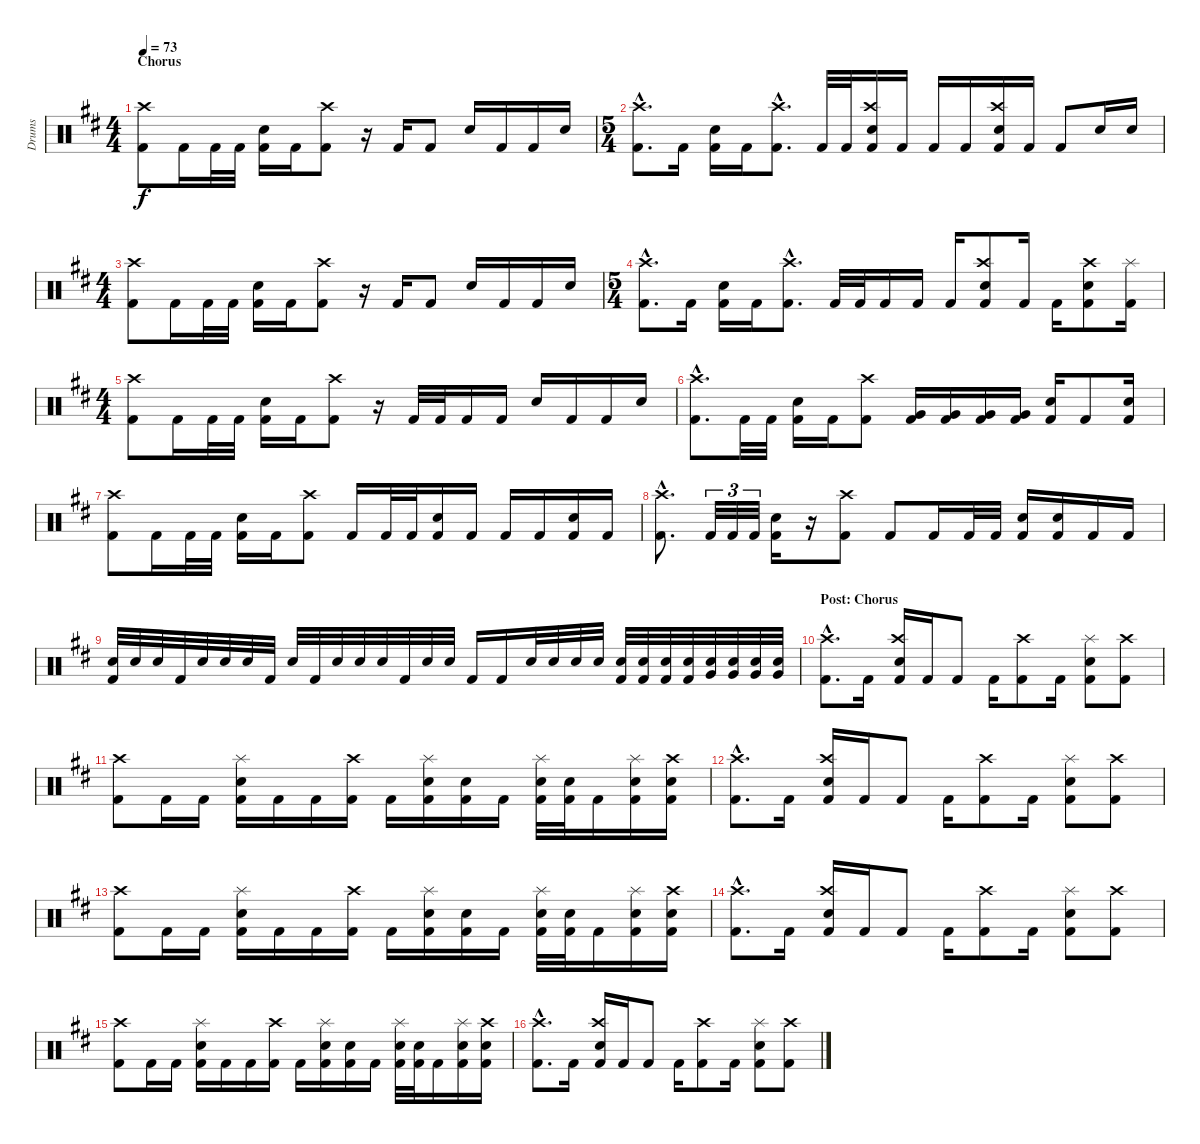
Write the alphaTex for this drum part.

\track ("Drums" "Drums") {instrument percussion}
\staff {score}
\articulation defaults
\ts (4 4)
\section ("" "Chorus")
\tempo 73
\clef neutral
\ks d
("Kick (hit) 2" "Crash high (hit)").8{dy f} "Kick (hit) 2".16 "Kick (hit) 2".32 "Kick (hit) 2".32 ("Kick (hit) 2" "Electric Snare (hit)").16 "Kick (hit) 2".16 ("Kick (hit) 2" "Crash high (hit)").8 r.16 "Kick (hit) 2".16 "Kick (hit) 2".8 "Electric Snare (hit)".16 "Kick (hit) 2".16 "Kick (hit) 2".16 "Electric Snare (hit)".16 |
\ts (5 4)
("Kick (hit) 2"{hac} "Crash high (hit)"{hac}).8{d} "Kick (hit) 2".16 ("Kick (hit) 2" "Electric Snare (hit)").16 "Kick (hit) 2".16 ("Kick (hit) 2"{hac} "Crash high (hit)"{hac}).8{d} "Kick (hit) 2".32 "Kick (hit) 2".32 ("Kick (hit) 2" "Electric Snare (hit)" "Crash high (hit)").16 "Kick (hit) 2".16 "Kick (hit) 2".16 "Kick (hit) 2".16 ("Kick (hit) 2" "Crash high (hit)" "Electric Snare (hit)").16 "Kick (hit) 2".16 "Kick (hit) 2".8 "Electric Snare (hit)".16 "Electric Snare (hit)".16 |
\ts (4 4)
("Kick (hit) 2" "Crash high (hit)").8 "Kick (hit) 2".16 "Kick (hit) 2".32 "Kick (hit) 2".32 ("Kick (hit) 2" "Electric Snare (hit)").16 "Kick (hit) 2".16 ("Kick (hit) 2" "Crash high (hit)").8 r.16 "Kick (hit) 2".16 "Kick (hit) 2".8 "Electric Snare (hit)".16 "Kick (hit) 2".16 "Kick (hit) 2".16 "Electric Snare (hit)".16 |
\ts (5 4)
("Kick (hit) 2"{hac} "Crash high (hit)"{hac}).8{d} "Kick (hit) 2".16 ("Kick (hit) 2" "Electric Snare (hit)").16 "Kick (hit) 2".16 ("Kick (hit) 2"{hac} "Crash high (hit)"{hac}).8{d} "Kick (hit) 2".32 "Kick (hit) 2".32 "Kick (hit) 2".16 "Kick (hit) 2".16 "Kick (hit) 2".16 ("Kick (hit) 2" "Electric Snare (hit)" "Crash high (hit)").8 "Kick (hit) 2".16 "Kick (hit) 2".16 ("Kick (hit) 2" "Electric Snare (hit)" "Crash high (hit)").8 ("Kick (hit) 2" "Splash (hit)").16 |
\ts (4 4)
("Kick (hit) 2" "Crash high (hit)").8 "Kick (hit) 2".16 "Kick (hit) 2".32 "Kick (hit) 2".32 ("Kick (hit) 2" "Electric Snare (hit)").16 "Kick (hit) 2".16 ("Kick (hit) 2" "Crash high (hit)").8 r.16 "Kick (hit) 2".32 "Kick (hit) 2".32 "Kick (hit) 2".16 "Kick (hit) 2".16 "Electric Snare (hit)".16 "Kick (hit) 2".16 "Kick (hit) 2".16 "Electric Snare (hit)".16 |
("Kick (hit) 2" "Crash high (hit)"{hac}).8{d} "Kick (hit) 2".32 "Kick (hit) 2".32 ("Kick (hit) 2" "Electric Snare (hit)").16 "Kick (hit) 2".16 ("Kick (hit) 2" "Crash high (hit)").8 ("Kick (hit) 2" "Very Low Tom (hit)").16 ("Kick (hit) 2" "Very Low Tom (hit)").16 ("Kick (hit) 2" "Very Low Tom (hit)").16 ("Kick (hit) 2" "Very Low Tom (hit)").16 ("Kick (hit) 2" "Electric Snare (hit)").16 "Kick (hit) 2".8 ("Kick (hit) 2" "Electric Snare (hit)").16 |
("Kick (hit) 2" "Crash high (hit)").8 "Kick (hit) 2".16 "Kick (hit) 2".32 "Kick (hit) 2".32 ("Kick (hit) 2" "Electric Snare (hit)").16 "Kick (hit) 2".16 ("Kick (hit) 2" "Crash high (hit)").8 "Kick (hit) 2".16 "Kick (hit) 2".32 "Kick (hit) 2".32 ("Kick (hit) 2" "Electric Snare (hit)").16 "Kick (hit) 2".16 "Kick (hit) 2".16 "Kick (hit) 2".16 ("Kick (hit) 2" "Electric Snare (hit)").16 "Kick (hit) 2".16 |
("Kick (hit) 2"{hac} "Crash high (hit)"{hac}).8{d} "Kick (hit) 2".32{tu (3 2)} "Kick (hit) 2".32{tu (3 2)} "Kick (hit) 2".32{tu (3 2)} ("Kick (hit) 2" "Electric Snare (hit)").16 r.16 ("Kick (hit) 2" "Crash high (hit)").8 "Kick (hit) 2".8 "Kick (hit) 2".16 "Kick (hit) 2".32 "Kick (hit) 2".32 ("Kick (hit) 2" "Electric Snare (hit)").16 ("Kick (hit) 2" "Electric Snare (hit)").16 "Kick (hit) 2".16 "Kick (hit) 2".16 |
("Electric Snare (hit)" "Kick (hit) 2").32 "Electric Snare (hit)".32 "Electric Snare (hit)".32 "Kick (hit) 2".32 "Electric Snare (hit)".32 "Electric Snare (hit)".32 "Electric Snare (hit)".32 "Kick (hit) 2".32 "Electric Snare (hit)".32 "Kick (hit) 2".32 "Electric Snare (hit)".32 "Electric Snare (hit)".32 "Electric Snare (hit)".32 "Kick (hit) 2".32 "Electric Snare (hit)".32 "Electric Snare (hit)".32 "Kick (hit) 2".16 "Kick (hit) 2".16 "Electric Snare (hit)".32 "Electric Snare (hit)".32 "Electric Snare (hit)".32 "Electric Snare (hit)".32 ("Kick (hit) 2" "Electric Snare (hit)").32 ("Kick (hit) 2" "Electric Snare (hit)").32 ("Kick (hit) 2" "Electric Snare (hit)").32 ("Kick (hit) 2" "Electric Snare (hit)").32 ("Very Low Tom (hit)" "Electric Snare (hit)").32 ("Very Low Tom (hit)" "Electric Snare (hit)").32 ("Very Low Tom (hit)" "Electric Snare (hit)").32 ("Very Low Tom (hit)" "Electric Snare (hit)").32 |
\section ("" "Post: Chorus")
("Kick (hit) 2"{hac} "Crash high (hit)"{hac}).8{d} "Kick (hit) 2".16 ("Kick (hit) 2" "Electric Snare (hit)" "Crash high (hit)").16 "Kick (hit) 2".16 "Kick (hit) 2".8 "Kick (hit) 2".16 ("Kick (hit) 2" "Crash high (hit)").8 "Kick (hit) 2".16 ("Kick (hit) 2" "Electric Snare (hit)" "Splash (hit)").8 ("Kick (hit) 2" "Crash high (hit)").8 |
("Kick (hit) 2" "Crash high (hit)").8 "Kick (hit) 2".16 "Kick (hit) 2".16 ("Kick (hit) 2" "Electric Snare (hit)" "Splash (hit)").16 "Kick (hit) 2".16 "Kick (hit) 2".16 ("Kick (hit) 2" "Crash high (hit)").16 "Kick (hit) 2".16 ("Kick (hit) 2" "Electric Snare (hit)" "Splash (hit)").16 ("Kick (hit) 2" "Electric Snare (hit)").16 "Kick (hit) 2".16 ("Kick (hit) 2" "Electric Snare (hit)" "Splash (hit)").32 ("Kick (hit) 2" "Electric Snare (hit)").32 "Kick (hit) 2".16 ("Kick (hit) 2" "Splash (hit)" "Electric Snare (hit)").16 ("Kick (hit) 2" "Crash high (hit)" "Electric Snare (hit)").16 |
("Kick (hit) 2"{hac} "Crash high (hit)"{hac}).8{d} "Kick (hit) 2".16 ("Kick (hit) 2" "Electric Snare (hit)" "Crash high (hit)").16 "Kick (hit) 2".16 "Kick (hit) 2".8 "Kick (hit) 2".16 ("Kick (hit) 2" "Crash high (hit)").8 "Kick (hit) 2".16 ("Kick (hit) 2" "Electric Snare (hit)" "Splash (hit)").8 ("Kick (hit) 2" "Crash high (hit)").8 |
("Kick (hit) 2" "Crash high (hit)").8 "Kick (hit) 2".16 "Kick (hit) 2".16 ("Kick (hit) 2" "Electric Snare (hit)" "Splash (hit)").16 "Kick (hit) 2".16 "Kick (hit) 2".16 ("Kick (hit) 2" "Crash high (hit)").16 "Kick (hit) 2".16 ("Kick (hit) 2" "Electric Snare (hit)" "Splash (hit)").16 ("Kick (hit) 2" "Electric Snare (hit)").16 "Kick (hit) 2".16 ("Kick (hit) 2" "Electric Snare (hit)" "Splash (hit)").32 ("Kick (hit) 2" "Electric Snare (hit)").32 "Kick (hit) 2".16 ("Kick (hit) 2" "Splash (hit)" "Electric Snare (hit)").16 ("Kick (hit) 2" "Crash high (hit)" "Electric Snare (hit)").16 |
("Kick (hit) 2"{hac} "Crash high (hit)"{hac}).8{d} "Kick (hit) 2".16 ("Kick (hit) 2" "Electric Snare (hit)" "Crash high (hit)").16 "Kick (hit) 2".16 "Kick (hit) 2".8 "Kick (hit) 2".16 ("Kick (hit) 2" "Crash high (hit)").8 "Kick (hit) 2".16 ("Kick (hit) 2" "Electric Snare (hit)" "Splash (hit)").8 ("Kick (hit) 2" "Crash high (hit)").8 |
("Kick (hit) 2" "Crash high (hit)").8 "Kick (hit) 2".16 "Kick (hit) 2".16 ("Kick (hit) 2" "Electric Snare (hit)" "Splash (hit)").16 "Kick (hit) 2".16 "Kick (hit) 2".16 ("Kick (hit) 2" "Crash high (hit)").16 "Kick (hit) 2".16 ("Kick (hit) 2" "Electric Snare (hit)" "Splash (hit)").16 ("Kick (hit) 2" "Electric Snare (hit)").16 "Kick (hit) 2".16 ("Kick (hit) 2" "Electric Snare (hit)" "Splash (hit)").32 ("Kick (hit) 2" "Electric Snare (hit)").32 "Kick (hit) 2".16 ("Kick (hit) 2" "Splash (hit)" "Electric Snare (hit)").16 ("Kick (hit) 2" "Crash high (hit)" "Electric Snare (hit)").16 |
("Kick (hit) 2"{hac} "Crash high (hit)"{hac}).8{d} "Kick (hit) 2".16 ("Kick (hit) 2" "Electric Snare (hit)" "Crash high (hit)").16 "Kick (hit) 2".16 "Kick (hit) 2".8 "Kick (hit) 2".16 ("Kick (hit) 2" "Crash high (hit)").8 "Kick (hit) 2".16 ("Kick (hit) 2" "Electric Snare (hit)" "Splash (hit)").8 ("Kick (hit) 2" "Crash high (hit)").8
